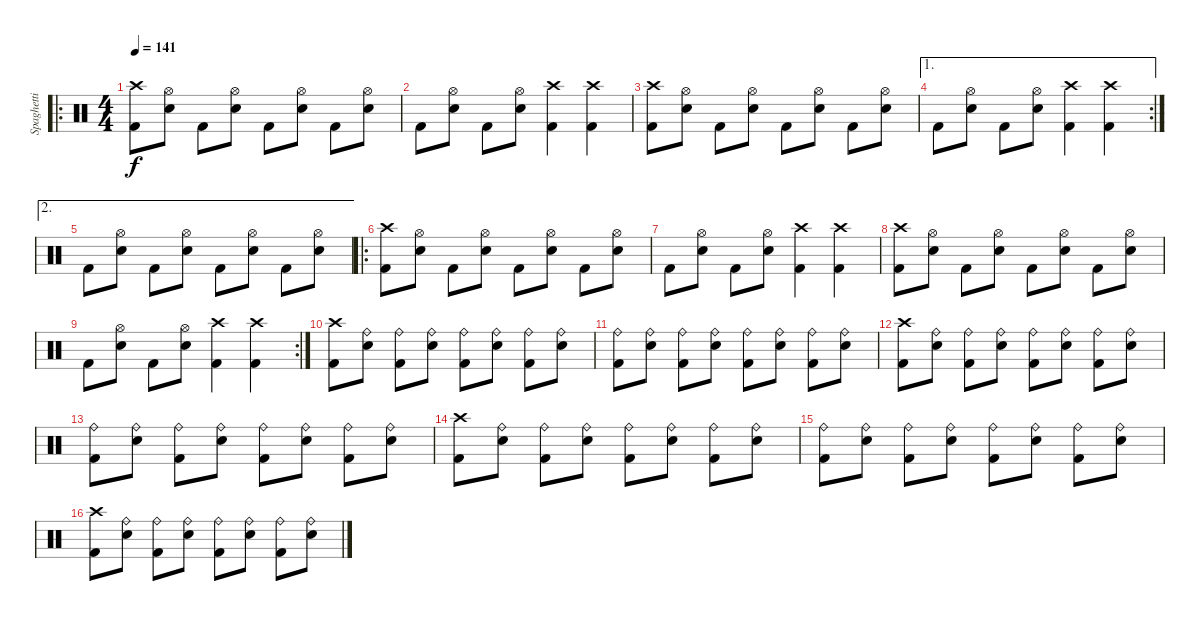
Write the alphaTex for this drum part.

\track ("Spaghetti" "Spaghetti") {instrument percussion}
\staff {score}
\articulation defaults
\ro
\ts (4 4)
\tempo 141
\clef neutral
\ks c
("Crash high (hit)" "Kick (hit) 2").8{dy f} ("Hi-Hat (open)" "Snare (hit) 2").8 "Kick (hit) 2".8 ("Hi-Hat (open)" "Snare (hit) 2").8 "Kick (hit) 2".8 ("Hi-Hat (open)" "Snare (hit) 2").8 "Kick (hit) 2".8 ("Hi-Hat (open)" "Snare (hit) 2").8 |
"Kick (hit) 2".8 ("Hi-Hat (open)" "Snare (hit) 2").8 "Kick (hit) 2".8 ("Hi-Hat (open)" "Snare (hit) 2").8 ("Crash high (hit)" "Kick (hit) 2").4 ("Crash high (hit)" "Kick (hit) 2").4 |
("Crash high (hit)" "Kick (hit) 2").8 ("Hi-Hat (open)" "Snare (hit) 2").8 "Kick (hit) 2".8 ("Hi-Hat (open)" "Snare (hit) 2").8 "Kick (hit) 2".8 ("Hi-Hat (open)" "Snare (hit) 2").8 "Kick (hit) 2".8 ("Hi-Hat (open)" "Snare (hit) 2").8 |
\ae 1
\rc 2 "Kick (hit) 2".8
("Hi-Hat (open)" "Snare (hit) 2").8 "Kick (hit) 2".8 ("Hi-Hat (open)" "Snare (hit) 2").8 ("Crash high (hit)" "Kick (hit) 2").4 ("Crash high (hit)" "Kick (hit) 2").4 |
\ae 2 "Kick (hit) 2".8
("Hi-Hat (open)" "Snare (hit) 2").8 "Kick (hit) 2".8 ("Hi-Hat (open)" "Snare (hit) 2").8 "Kick (hit) 2".8 ("Hi-Hat (open)" "Snare (hit) 2").8 "Kick (hit) 2".8 ("Hi-Hat (open)" "Snare (hit) 2").8 |
\ro
("Crash high (hit)" "Kick (hit) 2").8 ("Hi-Hat (open)" "Snare (hit) 2").8 "Kick (hit) 2".8 ("Hi-Hat (open)" "Snare (hit) 2").8 "Kick (hit) 2".8 ("Hi-Hat (open)" "Snare (hit) 2").8 "Kick (hit) 2".8 ("Hi-Hat (open)" "Snare (hit) 2").8 |
"Kick (hit) 2".8 ("Hi-Hat (open)" "Snare (hit) 2").8 "Kick (hit) 2".8 ("Hi-Hat (open)" "Snare (hit) 2").8 ("Crash high (hit)" "Kick (hit) 2").4 ("Crash high (hit)" "Kick (hit) 2").4 |
("Crash high (hit)" "Kick (hit) 2").8 ("Hi-Hat (open)" "Snare (hit) 2").8 "Kick (hit) 2".8 ("Hi-Hat (open)" "Snare (hit) 2").8 "Kick (hit) 2".8 ("Hi-Hat (open)" "Snare (hit) 2").8 "Kick (hit) 2".8 ("Hi-Hat (open)" "Snare (hit) 2").8 |
\rc 2 "Kick (hit) 2".8
("Hi-Hat (open)" "Snare (hit) 2").8 "Kick (hit) 2".8 ("Hi-Hat (open)" "Snare (hit) 2").8 ("Crash high (hit)" "Kick (hit) 2").4 ("Crash high (hit)" "Kick (hit) 2").4 |
("Crash high (hit)" "Kick (hit) 2").8 ("Ride (bell)" "Snare (hit) 2").8 ("Ride (bell)" "Kick (hit) 2").8 ("Ride (bell)" "Snare (hit) 2").8 ("Ride (bell)" "Kick (hit) 2").8 ("Ride (bell)" "Snare (hit) 2").8 ("Ride (bell)" "Kick (hit) 2").8 ("Ride (bell)" "Snare (hit) 2").8 |
("Ride (bell)" "Kick (hit) 2").8 ("Ride (bell)" "Snare (hit) 2").8 ("Ride (bell)" "Kick (hit) 2").8 ("Ride (bell)" "Snare (hit) 2").8 ("Ride (bell)" "Kick (hit) 2").8 ("Ride (bell)" "Snare (hit) 2").8 ("Ride (bell)" "Kick (hit) 2").8 ("Ride (bell)" "Snare (hit) 2").8 |
("Crash high (hit)" "Kick (hit) 2").8 ("Ride (bell)" "Snare (hit) 2").8 ("Ride (bell)" "Kick (hit) 2").8 ("Ride (bell)" "Snare (hit) 2").8 ("Ride (bell)" "Kick (hit) 2").8 ("Ride (bell)" "Snare (hit) 2").8 ("Ride (bell)" "Kick (hit) 2").8 ("Ride (bell)" "Snare (hit) 2").8 |
("Ride (bell)" "Kick (hit) 2").8 ("Ride (bell)" "Snare (hit) 2").8 ("Ride (bell)" "Kick (hit) 2").8 ("Ride (bell)" "Snare (hit) 2").8 ("Ride (bell)" "Kick (hit) 2").8 ("Ride (bell)" "Snare (hit) 2").8 ("Ride (bell)" "Kick (hit) 2").8 ("Ride (bell)" "Snare (hit) 2").8 |
("Crash high (hit)" "Kick (hit) 2").8 ("Ride (bell)" "Snare (hit) 2").8 ("Ride (bell)" "Kick (hit) 2").8 ("Ride (bell)" "Snare (hit) 2").8 ("Ride (bell)" "Kick (hit) 2").8 ("Ride (bell)" "Snare (hit) 2").8 ("Ride (bell)" "Kick (hit) 2").8 ("Ride (bell)" "Snare (hit) 2").8 |
("Ride (bell)" "Kick (hit) 2").8 ("Ride (bell)" "Snare (hit) 2").8 ("Ride (bell)" "Kick (hit) 2").8 ("Ride (bell)" "Snare (hit) 2").8 ("Ride (bell)" "Kick (hit) 2").8 ("Ride (bell)" "Snare (hit) 2").8 ("Ride (bell)" "Kick (hit) 2").8 ("Ride (bell)" "Snare (hit) 2").8 |
("Crash high (hit)" "Kick (hit) 2").8 ("Ride (bell)" "Snare (hit) 2").8 ("Ride (bell)" "Kick (hit) 2").8 ("Ride (bell)" "Snare (hit) 2").8 ("Ride (bell)" "Kick (hit) 2").8 ("Ride (bell)" "Snare (hit) 2").8 ("Ride (bell)" "Kick (hit) 2").8 ("Ride (bell)" "Snare (hit) 2").8
